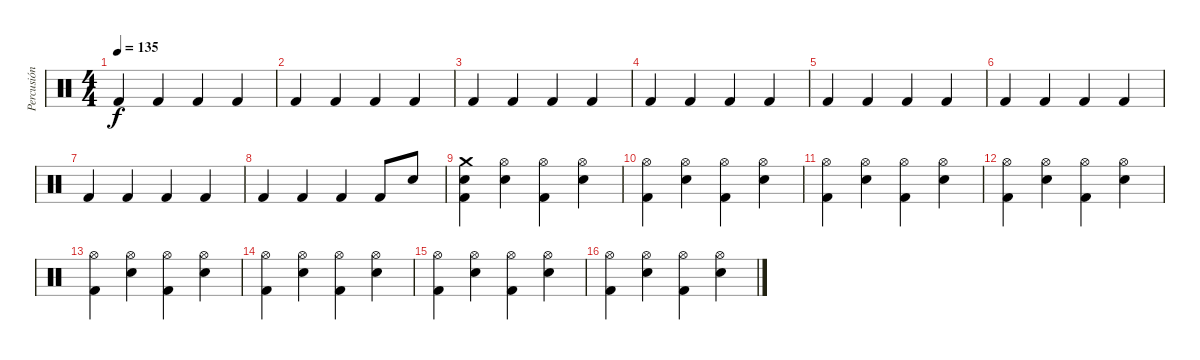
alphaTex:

\track ("Percusión" "Percusión") {instrument percussion}
\staff {score}
\articulation defaults
\ts (4 4)
\tempo 135
\clef neutral
\ks c "Kick (hit) 2".4{dy f} "Kick (hit) 2".4 "Kick (hit) 2".4 "Kick (hit) 2".4
|
"Kick (hit) 2".4 "Kick (hit) 2".4 "Kick (hit) 2".4 "Kick (hit) 2".4 |
"Kick (hit) 2".4 "Kick (hit) 2".4 "Kick (hit) 2".4 "Kick (hit) 2".4 |
"Kick (hit) 2".4 "Kick (hit) 2".4 "Kick (hit) 2".4 "Kick (hit) 2".4 |
"Kick (hit) 2".4 "Kick (hit) 2".4 "Kick (hit) 2".4 "Kick (hit) 2".4 |
"Kick (hit) 2".4 "Kick (hit) 2".4 "Kick (hit) 2".4 "Kick (hit) 2".4 |
"Kick (hit) 2".4 "Kick (hit) 2".4 "Kick (hit) 2".4 "Kick (hit) 2".4 |
"Kick (hit) 2".4 "Kick (hit) 2".4 "Kick (hit) 2".4 "Kick (hit) 2".8 "Electric Snare (hit)".8 |
("Crash medium (hit)" "Electric Snare (hit)" "Kick (hit) 2").4 ("Hi-Hat (open)" "Electric Snare (hit)").4 ("Hi-Hat (open)" "Kick (hit) 2").4 ("Hi-Hat (open)" "Electric Snare (hit)").4 |
("Hi-Hat (open)" "Kick (hit) 2").4 ("Hi-Hat (open)" "Electric Snare (hit)").4 ("Hi-Hat (open)" "Kick (hit) 2").4 ("Hi-Hat (open)" "Electric Snare (hit)").4 |
("Hi-Hat (open)" "Kick (hit) 2").4 ("Hi-Hat (open)" "Electric Snare (hit)").4 ("Hi-Hat (open)" "Kick (hit) 2").4 ("Hi-Hat (open)" "Electric Snare (hit)").4 |
("Hi-Hat (open)" "Kick (hit) 2").4 ("Hi-Hat (open)" "Electric Snare (hit)").4 ("Hi-Hat (open)" "Kick (hit) 2").4 ("Hi-Hat (open)" "Electric Snare (hit)").4 |
("Hi-Hat (open)" "Kick (hit) 2").4 ("Hi-Hat (open)" "Electric Snare (hit)").4 ("Hi-Hat (open)" "Kick (hit) 2").4 ("Hi-Hat (open)" "Electric Snare (hit)").4 |
("Hi-Hat (open)" "Kick (hit) 2").4 ("Hi-Hat (open)" "Electric Snare (hit)").4 ("Hi-Hat (open)" "Kick (hit) 2").4 ("Hi-Hat (open)" "Electric Snare (hit)").4 |
("Hi-Hat (open)" "Kick (hit) 2").4 ("Hi-Hat (open)" "Electric Snare (hit)").4 ("Hi-Hat (open)" "Kick (hit) 2").4 ("Hi-Hat (open)" "Electric Snare (hit)").4 |
("Hi-Hat (open)" "Kick (hit) 2").4 ("Hi-Hat (open)" "Electric Snare (hit)").4 ("Hi-Hat (open)" "Kick (hit) 2").4 ("Hi-Hat (open)" "Electric Snare (hit)").4
